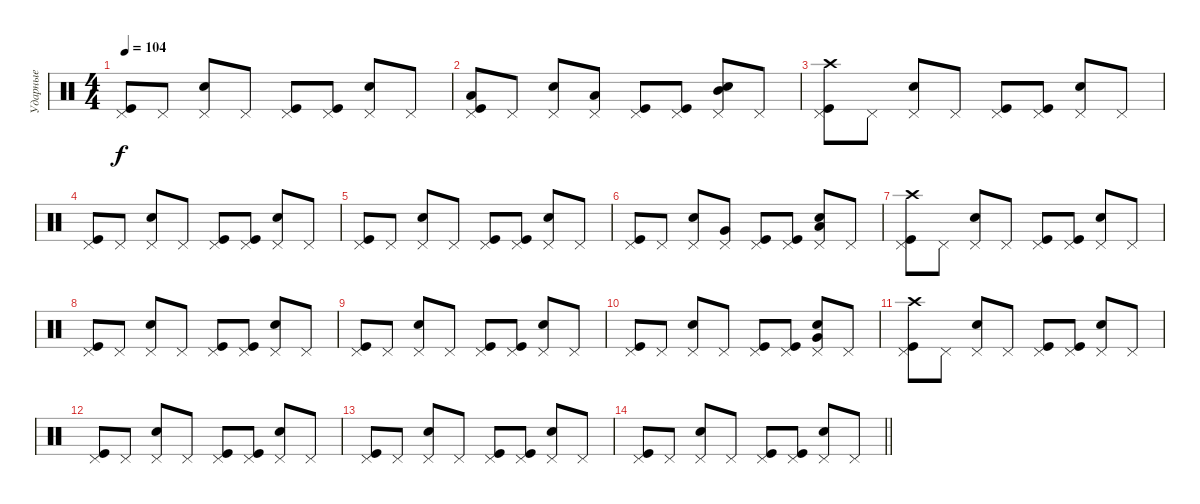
\track ("Ударные" "Ударные") {instrument percussion}
\staff {score}
\articulation defaults
\ts (4 4)
\tempo 104
\clef neutral
\ks c
("Pedal Hi-Hat (hit)" "Kick (hit)").8{dy f} "Pedal Hi-Hat (hit)".8 ("Pedal Hi-Hat (hit)" "Snare (hit) 2").8 "Pedal Hi-Hat (hit)".8 ("Pedal Hi-Hat (hit)" "Kick (hit)").8 ("Pedal Hi-Hat (hit)" "Kick (hit)").8 ("Pedal Hi-Hat (hit)" "Snare (hit) 2").8 "Pedal Hi-Hat (hit)".8 |
("Pedal Hi-Hat (hit)" "Kick (hit)" "Low Floor Tom (hit)").8 "Pedal Hi-Hat (hit)".8 ("Pedal Hi-Hat (hit)" "Snare (hit) 2").8 ("Pedal Hi-Hat (hit)" "Low Tom (hit)").8 ("Pedal Hi-Hat (hit)" "Kick (hit)").8 ("Pedal Hi-Hat (hit)" "Kick (hit)").8 ("Pedal Hi-Hat (hit)" "Snare (hit) 2" "Mid Tom (hit)").8 "Pedal Hi-Hat (hit)".8 |
("Pedal Hi-Hat (hit)" "Kick (hit)" "Crash high (hit)").8 "Pedal Hi-Hat (hit)".8 ("Pedal Hi-Hat (hit)" "Snare (hit) 2").8 "Pedal Hi-Hat (hit)".8 ("Pedal Hi-Hat (hit)" "Kick (hit)").8 ("Pedal Hi-Hat (hit)" "Kick (hit)").8 ("Pedal Hi-Hat (hit)" "Snare (hit) 2").8 "Pedal Hi-Hat (hit)".8 |
("Pedal Hi-Hat (hit)" "Kick (hit)").8 "Pedal Hi-Hat (hit)".8 ("Pedal Hi-Hat (hit)" "Snare (hit) 2").8 "Pedal Hi-Hat (hit)".8 ("Pedal Hi-Hat (hit)" "Kick (hit)").8 ("Pedal Hi-Hat (hit)" "Kick (hit)").8 ("Pedal Hi-Hat (hit)" "Snare (hit) 2").8 "Pedal Hi-Hat (hit)".8 |
("Pedal Hi-Hat (hit)" "Kick (hit)").8 "Pedal Hi-Hat (hit)".8 ("Pedal Hi-Hat (hit)" "Snare (hit) 2").8 "Pedal Hi-Hat (hit)".8 ("Pedal Hi-Hat (hit)" "Kick (hit)").8 ("Pedal Hi-Hat (hit)" "Kick (hit)").8 ("Pedal Hi-Hat (hit)" "Snare (hit) 2").8 "Pedal Hi-Hat (hit)".8 |
("Pedal Hi-Hat (hit)" "Kick (hit)").8 "Pedal Hi-Hat (hit)".8 ("Pedal Hi-Hat (hit)" "Snare (hit) 2").8 ("Pedal Hi-Hat (hit)" "Very Low Tom (hit)").8 ("Pedal Hi-Hat (hit)" "Kick (hit)").8 ("Pedal Hi-Hat (hit)" "Kick (hit)").8 ("Pedal Hi-Hat (hit)" "Snare (hit) 2" "Low Floor Tom (hit)").8 "Pedal Hi-Hat (hit)".8 |
("Pedal Hi-Hat (hit)" "Kick (hit)" "Crash high (hit)").8 "Pedal Hi-Hat (hit)".8 ("Pedal Hi-Hat (hit)" "Snare (hit) 2").8 "Pedal Hi-Hat (hit)".8 ("Pedal Hi-Hat (hit)" "Kick (hit)").8 ("Pedal Hi-Hat (hit)" "Kick (hit)").8 ("Pedal Hi-Hat (hit)" "Snare (hit) 2").8 "Pedal Hi-Hat (hit)".8 |
("Pedal Hi-Hat (hit)" "Kick (hit)").8 "Pedal Hi-Hat (hit)".8 ("Pedal Hi-Hat (hit)" "Snare (hit) 2").8 "Pedal Hi-Hat (hit)".8 ("Pedal Hi-Hat (hit)" "Kick (hit)").8 ("Pedal Hi-Hat (hit)" "Kick (hit)").8 ("Pedal Hi-Hat (hit)" "Snare (hit) 2").8 "Pedal Hi-Hat (hit)".8 |
("Pedal Hi-Hat (hit)" "Kick (hit)").8 "Pedal Hi-Hat (hit)".8 ("Pedal Hi-Hat (hit)" "Snare (hit) 2").8 "Pedal Hi-Hat (hit)".8 ("Pedal Hi-Hat (hit)" "Kick (hit)").8 ("Pedal Hi-Hat (hit)" "Kick (hit)").8 ("Pedal Hi-Hat (hit)" "Snare (hit) 2").8 "Pedal Hi-Hat (hit)".8 |
("Pedal Hi-Hat (hit)" "Kick (hit)").8 "Pedal Hi-Hat (hit)".8 ("Pedal Hi-Hat (hit)" "Snare (hit) 2").8 "Pedal Hi-Hat (hit)".8 ("Pedal Hi-Hat (hit)" "Kick (hit)").8 ("Pedal Hi-Hat (hit)" "Kick (hit)").8 ("Pedal Hi-Hat (hit)" "Snare (hit) 2" "Very Low Tom (hit)").8 "Pedal Hi-Hat (hit)".8 |
("Pedal Hi-Hat (hit)" "Kick (hit)" "Crash high (hit)").8 "Pedal Hi-Hat (hit)".8 ("Pedal Hi-Hat (hit)" "Snare (hit) 2").8 "Pedal Hi-Hat (hit)".8 ("Pedal Hi-Hat (hit)" "Kick (hit)").8 ("Pedal Hi-Hat (hit)" "Kick (hit)").8 ("Pedal Hi-Hat (hit)" "Snare (hit) 2").8 "Pedal Hi-Hat (hit)".8 |
("Pedal Hi-Hat (hit)" "Kick (hit)").8 "Pedal Hi-Hat (hit)".8 ("Pedal Hi-Hat (hit)" "Snare (hit) 2").8 "Pedal Hi-Hat (hit)".8 ("Pedal Hi-Hat (hit)" "Kick (hit)").8 ("Pedal Hi-Hat (hit)" "Kick (hit)").8 ("Pedal Hi-Hat (hit)" "Snare (hit) 2").8 "Pedal Hi-Hat (hit)".8 |
("Pedal Hi-Hat (hit)" "Kick (hit)").8 "Pedal Hi-Hat (hit)".8 ("Pedal Hi-Hat (hit)" "Snare (hit) 2").8 "Pedal Hi-Hat (hit)".8 ("Pedal Hi-Hat (hit)" "Kick (hit)").8 ("Pedal Hi-Hat (hit)" "Kick (hit)").8 ("Pedal Hi-Hat (hit)" "Snare (hit) 2").8 "Pedal Hi-Hat (hit)".8 |
\barLineRight lightlight
("Pedal Hi-Hat (hit)" "Kick (hit)").8 "Pedal Hi-Hat (hit)".8 ("Pedal Hi-Hat (hit)" "Snare (hit) 2").8 "Pedal Hi-Hat (hit)".8 ("Pedal Hi-Hat (hit)" "Kick (hit)").8 ("Pedal Hi-Hat (hit)" "Kick (hit)").8 ("Pedal Hi-Hat (hit)" "Snare (hit) 2").8 "Pedal Hi-Hat (hit)".8
